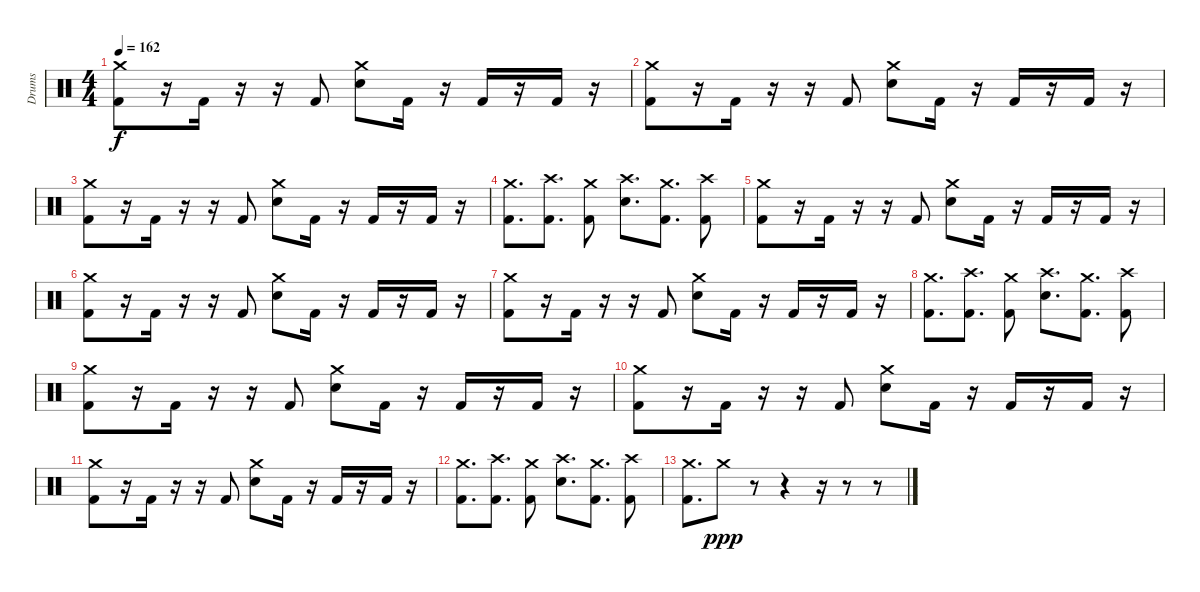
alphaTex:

\track ("Drums" "Drums") {instrument percussion}
\staff
\articulation defaults
\ts (4 4)
\tempo 162
\clef neutral
\ks c
("Crash medium (hit)" "Kick (hit) 2").8{dy f} r.16 "Kick (hit) 2".16 r.16 r.16 "Kick (hit) 2".8 ("Crash medium (hit)" "Electric Snare (hit)").8 "Kick (hit) 2".16 r.16 "Kick (hit) 2".16 r.16 "Kick (hit) 2".16 r.16 |
("Crash medium (hit)" "Kick (hit) 2").8 r.16 "Kick (hit) 2".16 r.16 r.16 "Kick (hit) 2".8 ("Crash medium (hit)" "Electric Snare (hit)").8 "Kick (hit) 2".16 r.16 "Kick (hit) 2".16 r.16 "Kick (hit) 2".16 r.16 |
("Crash medium (hit)" "Kick (hit) 2").8 r.16 "Kick (hit) 2".16 r.16 r.16 "Kick (hit) 2".8 ("Crash medium (hit)" "Electric Snare (hit)").8 "Kick (hit) 2".16 r.16 "Kick (hit) 2".16 r.16 "Kick (hit) 2".16 r.16 |
("Crash medium (hit)" "Kick (hit) 2").8{d} ("Crash high (hit)" "Kick (hit) 2").8{d} ("Crash medium (hit)" "Kick (hit) 2").8 ("Crash high (hit)" "Electric Snare (hit)").8{d} ("Crash medium (hit)" "Kick (hit) 2").8{d} ("Crash high (hit)" "Kick (hit) 2").8 |
("Crash medium (hit)" "Kick (hit) 2").8 r.16 "Kick (hit) 2".16 r.16 r.16 "Kick (hit) 2".8 ("Crash medium (hit)" "Electric Snare (hit)").8 "Kick (hit) 2".16 r.16 "Kick (hit) 2".16 r.16 "Kick (hit) 2".16 r.16 |
("Crash medium (hit)" "Kick (hit) 2").8 r.16 "Kick (hit) 2".16 r.16 r.16 "Kick (hit) 2".8 ("Crash medium (hit)" "Electric Snare (hit)").8 "Kick (hit) 2".16 r.16 "Kick (hit) 2".16 r.16 "Kick (hit) 2".16 r.16 |
("Crash medium (hit)" "Kick (hit) 2").8 r.16 "Kick (hit) 2".16 r.16 r.16 "Kick (hit) 2".8 ("Crash medium (hit)" "Electric Snare (hit)").8 "Kick (hit) 2".16 r.16 "Kick (hit) 2".16 r.16 "Kick (hit) 2".16 r.16 |
("Crash medium (hit)" "Kick (hit) 2").8{d} ("Crash high (hit)" "Kick (hit) 2").8{d} ("Crash medium (hit)" "Kick (hit) 2").8 ("Crash high (hit)" "Electric Snare (hit)").8{d} ("Crash medium (hit)" "Kick (hit) 2").8{d} ("Crash high (hit)" "Kick (hit) 2").8 |
("Crash medium (hit)" "Kick (hit) 2").8 r.16 "Kick (hit) 2".16 r.16 r.16 "Kick (hit) 2".8 ("Crash medium (hit)" "Electric Snare (hit)").8 "Kick (hit) 2".16 r.16 "Kick (hit) 2".16 r.16 "Kick (hit) 2".16 r.16 |
("Crash medium (hit)" "Kick (hit) 2").8 r.16 "Kick (hit) 2".16 r.16 r.16 "Kick (hit) 2".8 ("Crash medium (hit)" "Electric Snare (hit)").8 "Kick (hit) 2".16 r.16 "Kick (hit) 2".16 r.16 "Kick (hit) 2".16 r.16 |
("Crash medium (hit)" "Kick (hit) 2").8 r.16 "Kick (hit) 2".16 r.16 r.16 "Kick (hit) 2".8 ("Crash medium (hit)" "Electric Snare (hit)").8 "Kick (hit) 2".16 r.16 "Kick (hit) 2".16 r.16 "Kick (hit) 2".16 r.16 |
("Crash medium (hit)" "Kick (hit) 2").8{d} ("Crash high (hit)" "Kick (hit) 2").8{d} ("Crash medium (hit)" "Kick (hit) 2").8 ("Crash high (hit)" "Electric Snare (hit)").8{d} ("Crash medium (hit)" "Kick (hit) 2").8{d} ("Crash high (hit)" "Kick (hit) 2").8 |
("Crash medium (hit)" "Kick (hit) 2").8{d} "Crash medium (hit)".8{dy ppp} r.8 r.4 r.16 r.8 r.8
